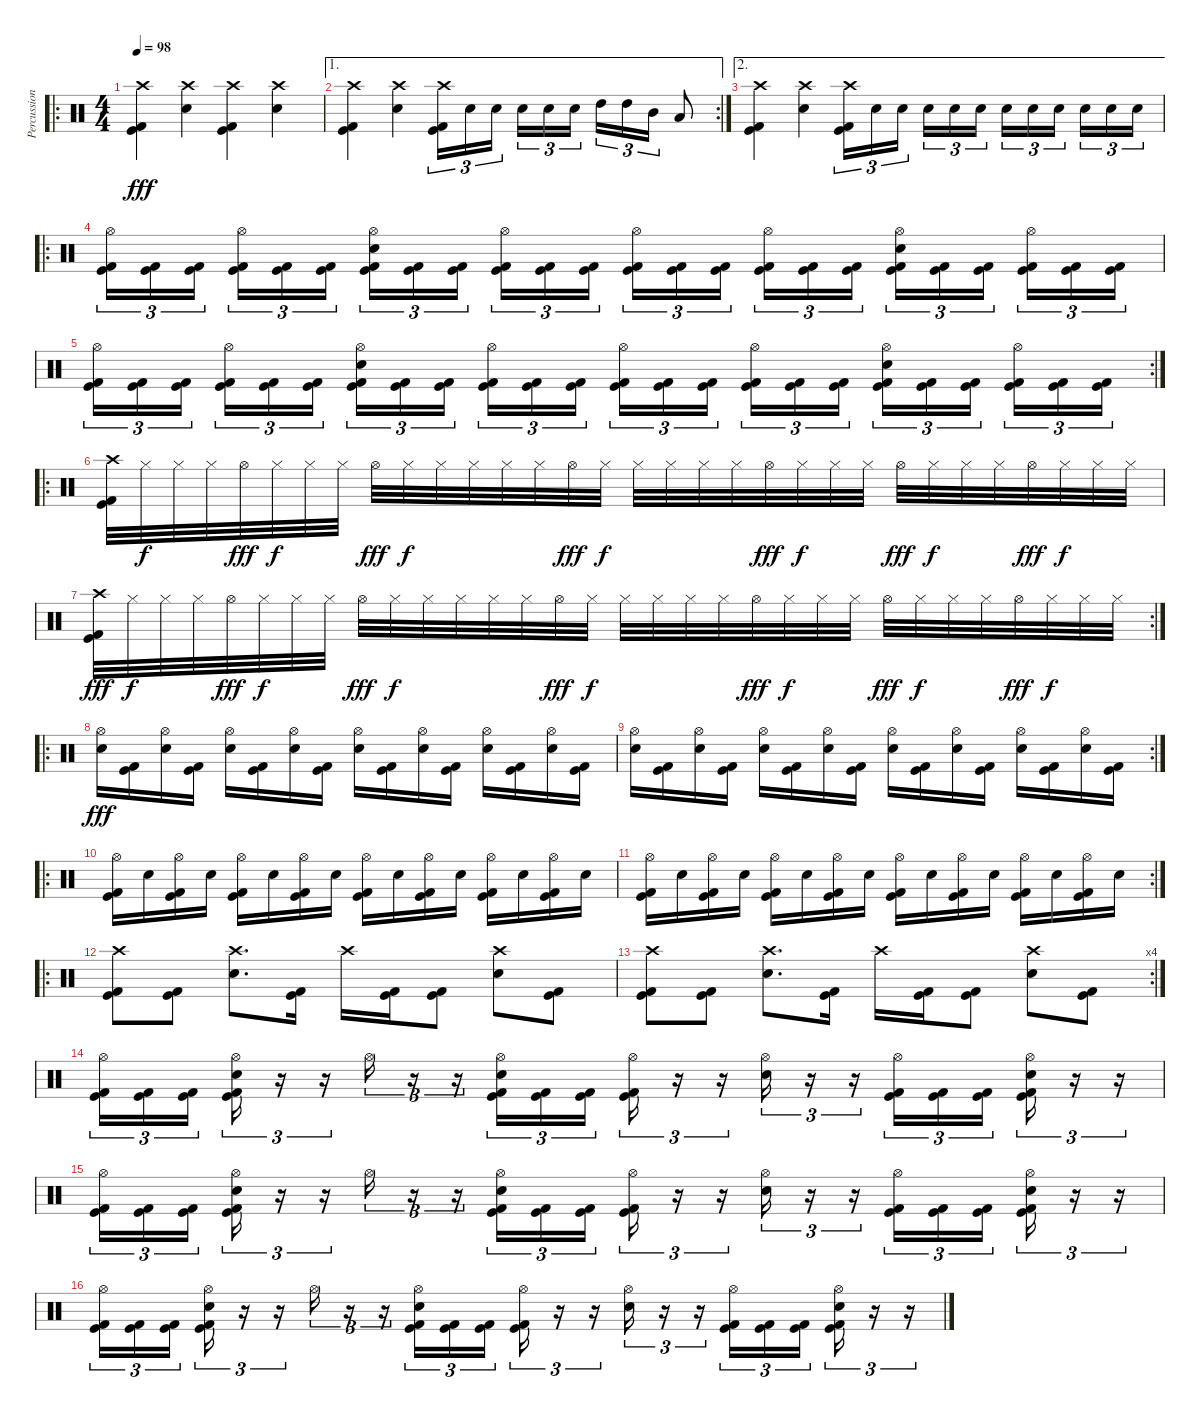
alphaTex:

\track ("Percussion" "Percussion") {instrument percussion}
\staff {score}
\articulation defaults
\ro
\ts (4 4)
\tempo 98
\clef neutral
\ks c
("Crash high (hit)" "Kick (hit) 2" "Kick (hit)").4{dy fff} ("Electric Snare (hit)" "Crash high (hit)").4 ("Crash high (hit)" "Kick (hit) 2" "Kick (hit)").4 ("Electric Snare (hit)" "Crash high (hit)").4 |
\ae 1
\rc 2
("Crash high (hit)" "Kick (hit)" "Kick (hit) 2").4 ("Electric Snare (hit)" "Crash high (hit)").4 ("Crash high (hit)" "Kick (hit) 2" "Kick (hit)").16{tu (3 2)} "Electric Snare (hit)".16{tu (3 2)} "Electric Snare (hit)".16{tu (3 2) beam splitsecondary} "Electric Snare (hit)".16{tu (3 2)} "Electric Snare (hit)".16{tu (3 2)} "Electric Snare (hit)".16{tu (3 2)} "High Tom (hit)".16{tu (3 2)} "High Tom (hit)".16{tu (3 2)} "Mid Tom (hit)".16{tu (3 2)} "Low Tom (hit)".8 |
\ae 2
("Crash high (hit)" "Kick (hit)" "Kick (hit) 2").4 ("Electric Snare (hit)" "Crash high (hit)").4 ("Crash high (hit)" "Kick (hit) 2" "Kick (hit)").16{tu (3 2)} "Electric Snare (hit)".16{tu (3 2)} "Electric Snare (hit)".16{tu (3 2) beam splitsecondary} "Electric Snare (hit)".16{tu (3 2)} "Electric Snare (hit)".16{tu (3 2)} "Electric Snare (hit)".16{tu (3 2)} "Electric Snare (hit)".16{tu (3 2)} "Electric Snare (hit)".16{tu (3 2)} "Electric Snare (hit)".16{tu (3 2) beam splitsecondary} "Electric Snare (hit)".16{tu (3 2)} "Electric Snare (hit)".16{tu (3 2)} "Electric Snare (hit)".16{tu (3 2)} |
\ro
("Hi-Hat (open)" "Kick (hit) 2" "Kick (hit)").16{tu (3 2)} ("Kick (hit) 2" "Kick (hit)").16{tu (3 2)} ("Kick (hit) 2" "Kick (hit)").16{tu (3 2) beam splitsecondary} ("Hi-Hat (open)" "Kick (hit) 2" "Kick (hit)").16{tu (3 2)} ("Kick (hit) 2" "Kick (hit)").16{tu (3 2)} ("Kick (hit) 2" "Kick (hit)").16{tu (3 2)} ("Electric Snare (hit)" "Hi-Hat (open)" "Kick (hit) 2" "Kick (hit)").16{tu (3 2)} ("Kick (hit) 2" "Kick (hit)").16{tu (3 2)} ("Kick (hit) 2" "Kick (hit)").16{tu (3 2) beam splitsecondary} ("Hi-Hat (open)" "Kick (hit) 2" "Kick (hit)").16{tu (3 2)} ("Kick (hit) 2" "Kick (hit)").16{tu (3 2)} ("Kick (hit) 2" "Kick (hit)").16{tu (3 2)} ("Hi-Hat (open)" "Kick (hit) 2" "Kick (hit)").16{tu (3 2)} ("Kick (hit) 2" "Kick (hit)").16{tu (3 2)} ("Kick (hit) 2" "Kick (hit)").16{tu (3 2) beam splitsecondary} ("Hi-Hat (open)" "Kick (hit) 2" "Kick (hit)").16{tu (3 2)} ("Kick (hit) 2" "Kick (hit)").16{tu (3 2)} ("Kick (hit) 2" "Kick (hit)").16{tu (3 2)} ("Electric Snare (hit)" "Hi-Hat (open)" "Kick (hit) 2" "Kick (hit)").16{tu (3 2)} ("Kick (hit) 2" "Kick (hit)").16{tu (3 2)} ("Kick (hit) 2" "Kick (hit)").16{tu (3 2) beam splitsecondary} ("Hi-Hat (open)" "Kick (hit) 2" "Kick (hit)").16{tu (3 2)} ("Kick (hit) 2" "Kick (hit)").16{tu (3 2)} ("Kick (hit) 2" "Kick (hit)").16{tu (3 2)} |
\rc 2
("Hi-Hat (open)" "Kick (hit) 2" "Kick (hit)").16{tu (3 2)} ("Kick (hit) 2" "Kick (hit)").16{tu (3 2)} ("Kick (hit) 2" "Kick (hit)").16{tu (3 2) beam splitsecondary} ("Hi-Hat (open)" "Kick (hit) 2" "Kick (hit)").16{tu (3 2)} ("Kick (hit) 2" "Kick (hit)").16{tu (3 2)} ("Kick (hit) 2" "Kick (hit)").16{tu (3 2)} ("Electric Snare (hit)" "Hi-Hat (open)" "Kick (hit) 2" "Kick (hit)").16{tu (3 2)} ("Kick (hit) 2" "Kick (hit)").16{tu (3 2)} ("Kick (hit) 2" "Kick (hit)").16{tu (3 2) beam splitsecondary} ("Hi-Hat (open)" "Kick (hit) 2" "Kick (hit)").16{tu (3 2)} ("Kick (hit) 2" "Kick (hit)").16{tu (3 2)} ("Kick (hit) 2" "Kick (hit)").16{tu (3 2)} ("Hi-Hat (open)" "Kick (hit) 2" "Kick (hit)").16{tu (3 2)} ("Kick (hit) 2" "Kick (hit)").16{tu (3 2)} ("Kick (hit) 2" "Kick (hit)").16{tu (3 2) beam splitsecondary} ("Hi-Hat (open)" "Kick (hit) 2" "Kick (hit)").16{tu (3 2)} ("Kick (hit) 2" "Kick (hit)").16{tu (3 2)} ("Kick (hit) 2" "Kick (hit)").16{tu (3 2)} ("Electric Snare (hit)" "Hi-Hat (open)" "Kick (hit) 2" "Kick (hit)").16{tu (3 2)} ("Kick (hit) 2" "Kick (hit)").16{tu (3 2)} ("Kick (hit) 2" "Kick (hit)").16{tu (3 2) beam splitsecondary} ("Hi-Hat (open)" "Kick (hit) 2" "Kick (hit)").16{tu (3 2)} ("Kick (hit) 2" "Kick (hit)").16{tu (3 2)} ("Kick (hit) 2" "Kick (hit)").16{tu (3 2)} |
\ro
("Crash high (hit)" "Kick (hit) 2" "Kick (hit)").32 "Hi-Hat (closed)".32{dy f} "Hi-Hat (closed)".32 "Hi-Hat (closed)".32 "Hi-Hat (open)".32{dy fff} "Hi-Hat (closed)".32{dy f} "Hi-Hat (closed)".32 "Hi-Hat (closed)".32 "Hi-Hat (open)".32{dy fff} "Hi-Hat (closed)".32{dy f} "Hi-Hat (closed)".32 "Hi-Hat (closed)".32 "Hi-Hat (closed)".32 "Hi-Hat (closed)".32 "Hi-Hat (open)".32{dy fff} "Hi-Hat (closed)".32{dy f} "Hi-Hat (closed)".32 "Hi-Hat (closed)".32 "Hi-Hat (closed)".32 "Hi-Hat (closed)".32 "Hi-Hat (open)".32{dy fff} "Hi-Hat (closed)".32{dy f} "Hi-Hat (closed)".32 "Hi-Hat (closed)".32 "Hi-Hat (open)".32{dy fff} "Hi-Hat (closed)".32{dy f} "Hi-Hat (closed)".32 "Hi-Hat (closed)".32 "Hi-Hat (open)".32{dy fff} "Hi-Hat (closed)".32{dy f} "Hi-Hat (closed)".32 "Hi-Hat (closed)".32 |
\rc 2
("Crash high (hit)" "Kick (hit) 2" "Kick (hit)").32{dy fff} "Hi-Hat (closed)".32{dy f} "Hi-Hat (closed)".32 "Hi-Hat (closed)".32 "Hi-Hat (open)".32{dy fff} "Hi-Hat (closed)".32{dy f} "Hi-Hat (closed)".32 "Hi-Hat (closed)".32 "Hi-Hat (open)".32{dy fff} "Hi-Hat (closed)".32{dy f} "Hi-Hat (closed)".32 "Hi-Hat (closed)".32 "Hi-Hat (closed)".32 "Hi-Hat (closed)".32 "Hi-Hat (open)".32{dy fff} "Hi-Hat (closed)".32{dy f} "Hi-Hat (closed)".32 "Hi-Hat (closed)".32 "Hi-Hat (closed)".32 "Hi-Hat (closed)".32 "Hi-Hat (open)".32{dy fff} "Hi-Hat (closed)".32{dy f} "Hi-Hat (closed)".32 "Hi-Hat (closed)".32 "Hi-Hat (open)".32{dy fff} "Hi-Hat (closed)".32{dy f} "Hi-Hat (closed)".32 "Hi-Hat (closed)".32 "Hi-Hat (open)".32{dy fff} "Hi-Hat (closed)".32{dy f} "Hi-Hat (closed)".32 "Hi-Hat (closed)".32 |
\ro
("Hi-Hat (open)" "Electric Snare (hit)").16{dy fff} ("Kick (hit)" "Kick (hit) 2").16 ("Hi-Hat (open)" "Electric Snare (hit)").16 ("Kick (hit)" "Kick (hit) 2").16 ("Hi-Hat (open)" "Electric Snare (hit)").16 ("Kick (hit)" "Kick (hit) 2").16 ("Hi-Hat (open)" "Electric Snare (hit)").16 ("Kick (hit)" "Kick (hit) 2").16 ("Hi-Hat (open)" "Electric Snare (hit)").16 ("Kick (hit)" "Kick (hit) 2").16 ("Hi-Hat (open)" "Electric Snare (hit)").16 ("Kick (hit)" "Kick (hit) 2").16 ("Hi-Hat (open)" "Electric Snare (hit)").16 ("Kick (hit)" "Kick (hit) 2").16 ("Hi-Hat (open)" "Electric Snare (hit)").16 ("Kick (hit)" "Kick (hit) 2").16 |
\rc 2
("Hi-Hat (open)" "Electric Snare (hit)").16 ("Kick (hit)" "Kick (hit) 2").16 ("Hi-Hat (open)" "Electric Snare (hit)").16 ("Kick (hit)" "Kick (hit) 2").16 ("Hi-Hat (open)" "Electric Snare (hit)").16 ("Kick (hit)" "Kick (hit) 2").16 ("Hi-Hat (open)" "Electric Snare (hit)").16 ("Kick (hit)" "Kick (hit) 2").16 ("Hi-Hat (open)" "Electric Snare (hit)").16 ("Kick (hit)" "Kick (hit) 2").16 ("Hi-Hat (open)" "Electric Snare (hit)").16 ("Kick (hit)" "Kick (hit) 2").16 ("Hi-Hat (open)" "Electric Snare (hit)").16 ("Kick (hit)" "Kick (hit) 2").16 ("Hi-Hat (open)" "Electric Snare (hit)").16 ("Kick (hit)" "Kick (hit) 2").16 |
\ro
("Hi-Hat (open)" "Kick (hit)" "Kick (hit) 2").16 "Electric Snare (hit)".16 ("Hi-Hat (open)" "Kick (hit)" "Kick (hit) 2").16 "Electric Snare (hit)".16 ("Hi-Hat (open)" "Kick (hit)" "Kick (hit) 2").16 "Electric Snare (hit)".16 ("Hi-Hat (open)" "Kick (hit)" "Kick (hit) 2").16 "Electric Snare (hit)".16 ("Hi-Hat (open)" "Kick (hit)" "Kick (hit) 2").16 "Electric Snare (hit)".16 ("Hi-Hat (open)" "Kick (hit)" "Kick (hit) 2").16 "Electric Snare (hit)".16 ("Hi-Hat (open)" "Kick (hit)" "Kick (hit) 2").16 "Electric Snare (hit)".16 ("Hi-Hat (open)" "Kick (hit)" "Kick (hit) 2").16 "Electric Snare (hit)".16 |
\rc 2
("Hi-Hat (open)" "Kick (hit)" "Kick (hit) 2").16 "Electric Snare (hit)".16 ("Hi-Hat (open)" "Kick (hit)" "Kick (hit) 2").16 "Electric Snare (hit)".16 ("Hi-Hat (open)" "Kick (hit)" "Kick (hit) 2").16 "Electric Snare (hit)".16 ("Hi-Hat (open)" "Kick (hit)" "Kick (hit) 2").16 "Electric Snare (hit)".16 ("Hi-Hat (open)" "Kick (hit)" "Kick (hit) 2").16 "Electric Snare (hit)".16 ("Hi-Hat (open)" "Kick (hit)" "Kick (hit) 2").16 "Electric Snare (hit)".16 ("Hi-Hat (open)" "Kick (hit)" "Kick (hit) 2").16 "Electric Snare (hit)".16 ("Hi-Hat (open)" "Kick (hit)" "Kick (hit) 2").16 "Electric Snare (hit)".16 |
\ro
("Crash high (hit)" "Kick (hit) 2" "Kick (hit)").8 ("Kick (hit) 2" "Kick (hit)").8 ("Crash high (hit)" "Electric Snare (hit)").8{d} ("Kick (hit) 2" "Kick (hit)").16 "Crash high (hit)".16 ("Kick (hit) 2" "Kick (hit)").16 ("Kick (hit) 2" "Kick (hit)").8 ("Crash high (hit)" "Electric Snare (hit)").8 ("Kick (hit) 2" "Kick (hit)").8 |
\rc 4
("Crash high (hit)" "Kick (hit) 2" "Kick (hit)").8 ("Kick (hit) 2" "Kick (hit)").8 ("Crash high (hit)" "Electric Snare (hit)").8{d} ("Kick (hit) 2" "Kick (hit)").16 "Crash high (hit)".16 ("Kick (hit) 2" "Kick (hit)").16 ("Kick (hit) 2" "Kick (hit)").8 ("Crash high (hit)" "Electric Snare (hit)").8 ("Kick (hit) 2" "Kick (hit)").8 |
("Hi-Hat (open)" "Kick (hit) 2" "Kick (hit)").16{tu (3 2)} ("Kick (hit) 2" "Kick (hit)").16{tu (3 2)} ("Kick (hit) 2" "Kick (hit)").16{tu (3 2) beam splitsecondary} ("Hi-Hat (open)" "Electric Snare (hit)" "Kick (hit) 2" "Kick (hit)").16{tu (3 2)} r.16{tu (3 2)} r.16{tu (3 2)} "Hi-Hat (open)".16{tu (3 2)} r.16{tu (3 2)} r.16{tu (3 2)} ("Hi-Hat (open)" "Electric Snare (hit)" "Kick (hit) 2" "Kick (hit)").16{tu (3 2)} ("Kick (hit) 2" "Kick (hit)").16{tu (3 2)} ("Kick (hit) 2" "Kick (hit)").16{tu (3 2)} ("Hi-Hat (open)" "Kick (hit) 2" "Kick (hit)").16{tu (3 2)} r.16{tu (3 2)} r.16{tu (3 2)} ("Hi-Hat (open)" "Electric Snare (hit)").16{tu (3 2)} r.16{tu (3 2)} r.16{tu (3 2)} ("Hi-Hat (open)" "Kick (hit) 2" "Kick (hit)").16{tu (3 2)} ("Kick (hit) 2" "Kick (hit)").16{tu (3 2)} ("Kick (hit) 2" "Kick (hit)").16{tu (3 2) beam splitsecondary} ("Hi-Hat (open)" "Electric Snare (hit)" "Kick (hit) 2" "Kick (hit)").16{tu (3 2)} r.16{tu (3 2)} r.16{tu (3 2)} |
("Hi-Hat (open)" "Kick (hit) 2" "Kick (hit)").16{tu (3 2)} ("Kick (hit) 2" "Kick (hit)").16{tu (3 2)} ("Kick (hit) 2" "Kick (hit)").16{tu (3 2) beam splitsecondary} ("Hi-Hat (open)" "Electric Snare (hit)" "Kick (hit) 2" "Kick (hit)").16{tu (3 2)} r.16{tu (3 2)} r.16{tu (3 2)} "Hi-Hat (open)".16{tu (3 2)} r.16{tu (3 2)} r.16{tu (3 2)} ("Hi-Hat (open)" "Electric Snare (hit)" "Kick (hit) 2" "Kick (hit)").16{tu (3 2)} ("Kick (hit) 2" "Kick (hit)").16{tu (3 2)} ("Kick (hit) 2" "Kick (hit)").16{tu (3 2)} ("Hi-Hat (open)" "Kick (hit) 2" "Kick (hit)").16{tu (3 2)} r.16{tu (3 2)} r.16{tu (3 2)} ("Hi-Hat (open)" "Electric Snare (hit)").16{tu (3 2)} r.16{tu (3 2)} r.16{tu (3 2)} ("Hi-Hat (open)" "Kick (hit) 2" "Kick (hit)").16{tu (3 2)} ("Kick (hit) 2" "Kick (hit)").16{tu (3 2)} ("Kick (hit) 2" "Kick (hit)").16{tu (3 2) beam splitsecondary} ("Hi-Hat (open)" "Electric Snare (hit)" "Kick (hit) 2" "Kick (hit)").16{tu (3 2)} r.16{tu (3 2)} r.16{tu (3 2)} |
("Hi-Hat (open)" "Kick (hit) 2" "Kick (hit)").16{tu (3 2)} ("Kick (hit) 2" "Kick (hit)").16{tu (3 2)} ("Kick (hit) 2" "Kick (hit)").16{tu (3 2) beam splitsecondary} ("Hi-Hat (open)" "Electric Snare (hit)" "Kick (hit) 2" "Kick (hit)").16{tu (3 2)} r.16{tu (3 2)} r.16{tu (3 2)} "Hi-Hat (open)".16{tu (3 2)} r.16{tu (3 2)} r.16{tu (3 2)} ("Hi-Hat (open)" "Electric Snare (hit)" "Kick (hit) 2" "Kick (hit)").16{tu (3 2)} ("Kick (hit) 2" "Kick (hit)").16{tu (3 2)} ("Kick (hit) 2" "Kick (hit)").16{tu (3 2)} ("Hi-Hat (open)" "Kick (hit) 2" "Kick (hit)").16{tu (3 2)} r.16{tu (3 2)} r.16{tu (3 2)} ("Hi-Hat (open)" "Electric Snare (hit)").16{tu (3 2)} r.16{tu (3 2)} r.16{tu (3 2)} ("Hi-Hat (open)" "Kick (hit) 2" "Kick (hit)").16{tu (3 2)} ("Kick (hit) 2" "Kick (hit)").16{tu (3 2)} ("Kick (hit) 2" "Kick (hit)").16{tu (3 2) beam splitsecondary} ("Hi-Hat (open)" "Electric Snare (hit)" "Kick (hit) 2" "Kick (hit)").16{tu (3 2)} r.16{tu (3 2)} r.16{tu (3 2)}
